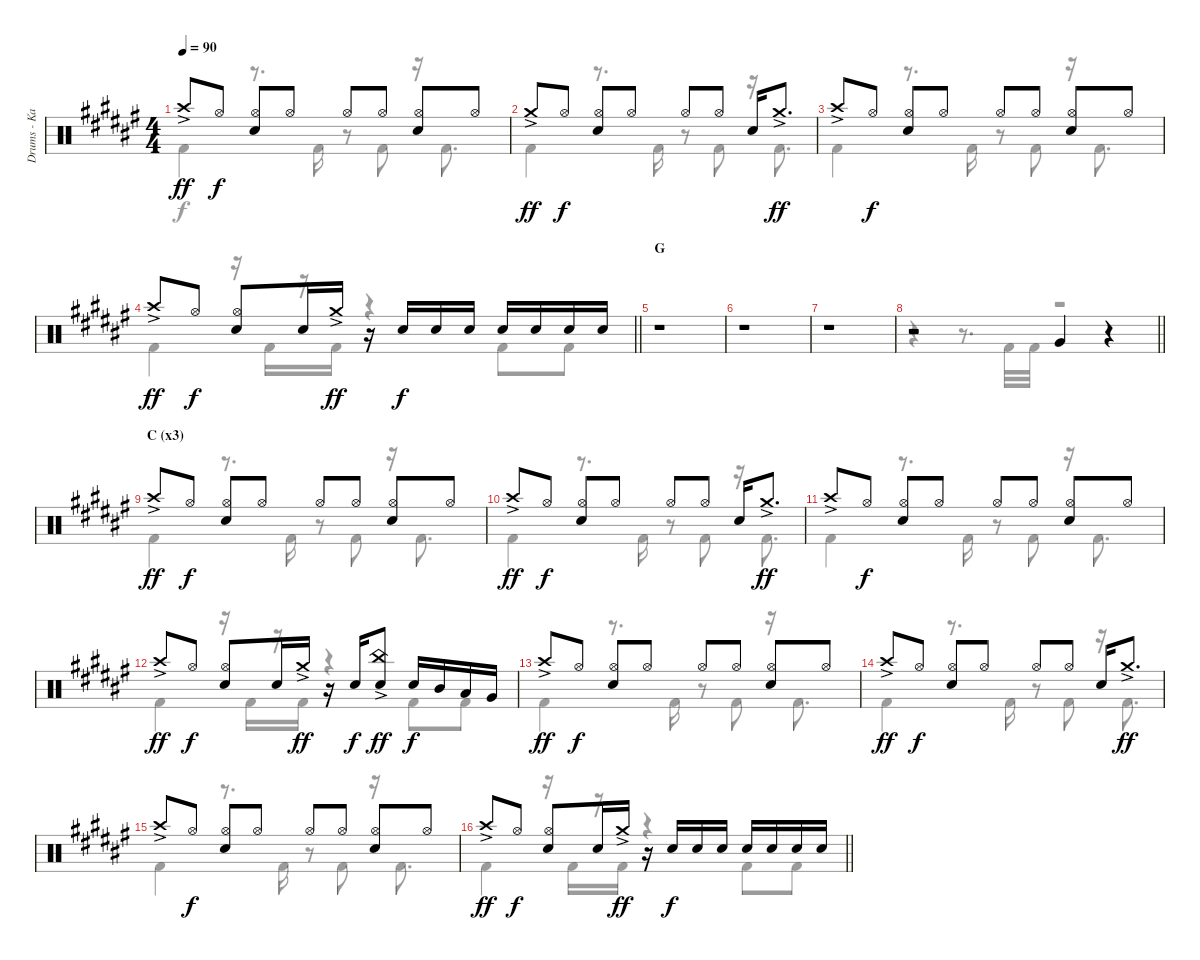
\track ("Drums - Kai" "Drums - Ka") {instrument percussion}
\staff {score}
\articulation defaults
\voice
\ts (4 4)
\tempo 90
\clef neutral
\ks f# "Crash high (hit)"{ac}.8{dy ff} "Hi-Hat (open)".8{dy f}
("Hi-Hat (open)" "Snare (hit) 2").8 "Hi-Hat (open)".8 "Hi-Hat (open)".8 "Hi-Hat (open)".8 ("Hi-Hat (open)" "Snare (hit) 2").8 "Hi-Hat (open)".8 |
"Crash medium (hit)"{ac}.8{dy ff} "Hi-Hat (open)".8{dy f} ("Hi-Hat (open)" "Snare (hit) 2").8 "Hi-Hat (open)".8 "Hi-Hat (open)".8 "Hi-Hat (open)".8 "Snare (hit) 2".16 "Crash medium (hit)"{ac}.8{d dy ff} |
"Crash high (hit)"{ac}.8 "Hi-Hat (open)".8{dy f} ("Hi-Hat (open)" "Snare (hit) 2").8 "Hi-Hat (open)".8 "Hi-Hat (open)".8 "Hi-Hat (open)".8 ("Hi-Hat (open)" "Snare (hit) 2").8 "Hi-Hat (open)".8 |
\barLineRight lightlight "Crash high (hit)"{ac}.8{dy ff} "Hi-Hat (open)".8{dy f}
("Hi-Hat (open)" "Snare (hit) 2").8 "Snare (hit) 2".16 "Crash medium (hit)"{ac}.16{dy ff} r.16 "Snare (hit) 2".16{dy f} "Snare (hit) 2".16 "Snare (hit) 2".16 "Snare (hit) 2".16 "Snare (hit) 2".16 "Snare (hit) 2".16 "Snare (hit) 2".16 |
\section ("" "G")
r.1 |
r.1 |
r.1 |
\barLineRight lightlight
r.2 "Very Low Tom (hit)".4 r.4 |
\section ("" "C (x3)")
"Crash high (hit)"{ac}.8{dy ff} "Hi-Hat (open)".8{dy f} ("Hi-Hat (open)" "Snare (hit) 2").8 "Hi-Hat (open)".8 "Hi-Hat (open)".8 "Hi-Hat (open)".8 ("Hi-Hat (open)" "Snare (hit) 2").8 "Hi-Hat (open)".8 |
"Crash high (hit)"{ac}.8{dy ff} "Hi-Hat (open)".8{dy f} ("Hi-Hat (open)" "Snare (hit) 2").8 "Hi-Hat (open)".8 "Hi-Hat (open)".8 "Hi-Hat (open)".8 "Snare (hit) 2".16 "Crash medium (hit)"{ac}.8{d dy ff} |
"Crash high (hit)"{ac}.8 "Hi-Hat (open)".8{dy f} ("Hi-Hat (open)" "Snare (hit) 2").8 "Hi-Hat (open)".8 "Hi-Hat (open)".8 "Hi-Hat (open)".8 ("Hi-Hat (open)" "Snare (hit) 2").8 "Hi-Hat (open)".8 |
"Crash high (hit)"{ac}.8{dy ff} "Hi-Hat (open)".8{dy f} ("Hi-Hat (open)" "Snare (hit) 2").8 "Snare (hit) 2".16 "Crash medium (hit)"{ac}.16{dy ff} r.16 "Snare (hit) 2".16{dy f} ("China (hit)"{ac} "Snare (hit) 2").8{dy ff} "Snare (hit) 2".16{dy f} "Mid Tom (hit)".16 "Low Tom (hit)".16 "Very Low Tom (hit)".16 |
"Crash high (hit)"{ac}.8{dy ff} "Hi-Hat (open)".8{dy f} ("Hi-Hat (open)" "Snare (hit) 2").8 "Hi-Hat (open)".8 "Hi-Hat (open)".8 "Hi-Hat (open)".8 ("Hi-Hat (open)" "Snare (hit) 2").8 "Hi-Hat (open)".8 |
"Crash high (hit)"{ac}.8{dy ff} "Hi-Hat (open)".8{dy f} ("Hi-Hat (open)" "Snare (hit) 2").8 "Hi-Hat (open)".8 "Hi-Hat (open)".8 "Hi-Hat (open)".8 "Snare (hit) 2".16 "Crash medium (hit)"{ac}.8{d dy ff} |
"Crash high (hit)"{ac}.8 "Hi-Hat (open)".8{dy f} ("Hi-Hat (open)" "Snare (hit) 2").8 "Hi-Hat (open)".8 "Hi-Hat (open)".8 "Hi-Hat (open)".8 ("Hi-Hat (open)" "Snare (hit) 2").8 "Hi-Hat (open)".8 |
\barLineRight lightlight "Crash high (hit)"{ac}.8{dy ff} "Hi-Hat (open)".8{dy f}
("Hi-Hat (open)" "Snare (hit) 2").8 "Snare (hit) 2".16 "Crash medium (hit)"{ac}.16{dy ff} r.16 "Snare (hit) 2".16{dy f} "Snare (hit) 2".16 "Snare (hit) 2".16 "Snare (hit) 2".16 "Snare (hit) 2".16 "Snare (hit) 2".16 "Snare (hit) 2".16
\voice
\clef neutral
\ottava regular
\simile none
\ks f# "Kick (hit) 2".4{dy f}
r.8{d} "Kick (hit) 2".16 r.8 "Kick (hit) 2".8 r.16 "Kick (hit) 2".8{d} |
"Kick (hit) 2".4 r.8{d} "Kick (hit) 2".16 r.8 "Kick (hit) 2".8 r.16 "Kick (hit) 2".8{d} |
"Kick (hit) 2".4 r.8{d} "Kick (hit) 2".16 r.8 "Kick (hit) 2".8 r.16 "Kick (hit) 2".8{d} |
\barLineRight lightlight "Kick (hit) 2".4
r.16 "Kick (hit) 2".16 r.16 "Kick (hit) 2".16 r.4 "Kick (hit) 2".8 "Kick (hit) 2".8 |
|
|
|
\barLineRight lightlight
r.4 r.8{d} "Kick (hit) 2".32 "Kick (hit) 2".32 r.2 |
"Kick (hit) 2".4 r.8{d} "Kick (hit) 2".16 r.8 "Kick (hit) 2".8 r.16 "Kick (hit) 2".8{d} |
"Kick (hit) 2".4 r.8{d} "Kick (hit) 2".16 r.8 "Kick (hit) 2".8 r.16 "Kick (hit) 2".8{d} |
"Kick (hit) 2".4 r.8{d} "Kick (hit) 2".16 r.8 "Kick (hit) 2".8 r.16 "Kick (hit) 2".8{d} |
"Kick (hit) 2".4 r.16 "Kick (hit) 2".16 r.16 "Kick (hit) 2".16 r.4 "Kick (hit) 2".8 "Kick (hit) 2".8 |
"Kick (hit) 2".4 r.8{d} "Kick (hit) 2".16 r.8 "Kick (hit) 2".8 r.16 "Kick (hit) 2".8{d} |
"Kick (hit) 2".4 r.8{d} "Kick (hit) 2".16 r.8 "Kick (hit) 2".8 r.16 "Kick (hit) 2".8{d} |
"Kick (hit) 2".4 r.8{d} "Kick (hit) 2".16 r.8 "Kick (hit) 2".8 r.16 "Kick (hit) 2".8{d} |
\barLineRight lightlight "Kick (hit) 2".4
r.16 "Kick (hit) 2".16 r.16 "Kick (hit) 2".16 r.4 "Kick (hit) 2".8 "Kick (hit) 2".8
